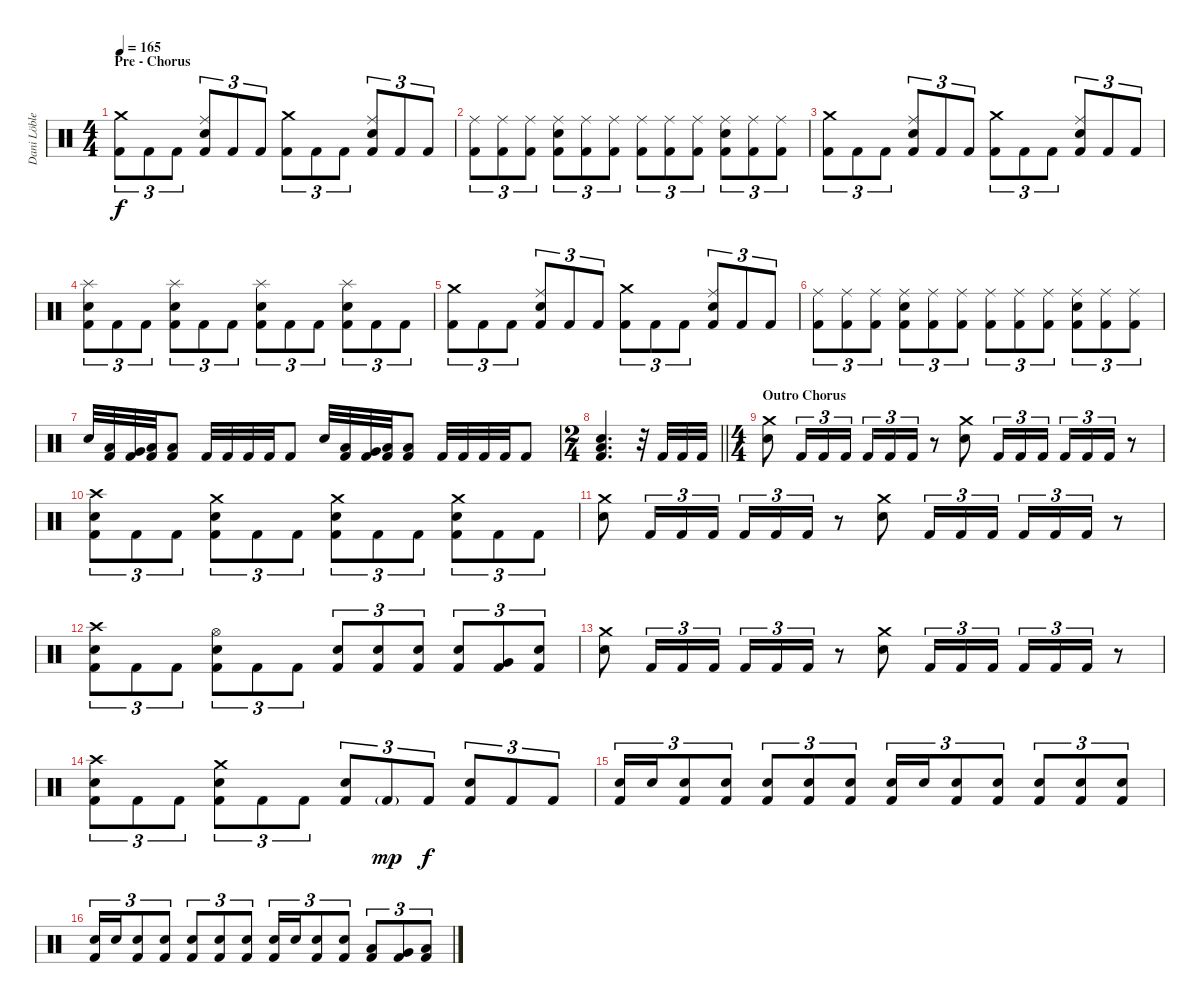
\track ("Dani Löble" "Dani Löble") {instrument percussion}
\staff {score}
\articulation defaults
\ts (4 4)
\section ("" "Pre - Chorus")
\tempo 165
\clef neutral
\ks c
("Crash medium (hit)" "Kick (hit) 2").8{tu (3 2) dy f} "Kick (hit) 2".8{tu (3 2)} "Kick (hit) 2".8{tu (3 2)} ("Ride (middle)" "Electric Snare (hit)" "Kick (hit) 2").8{tu (3 2)} "Kick (hit) 2".8{tu (3 2)} "Kick (hit) 2".8{tu (3 2)} ("Crash medium (hit)" "Kick (hit) 2").8{tu (3 2)} "Kick (hit) 2".8{tu (3 2)} "Kick (hit) 2".8{tu (3 2)} ("Ride (middle)" "Electric Snare (hit)" "Kick (hit) 2").8{tu (3 2)} "Kick (hit) 2".8{tu (3 2)} "Kick (hit) 2".8{tu (3 2)} |
("Ride (middle)" "Kick (hit) 2").8{tu (3 2)} ("Ride (middle)" "Kick (hit) 2").8{tu (3 2)} ("Ride (middle)" "Kick (hit) 2").8{tu (3 2)} ("Ride (middle)" "Electric Snare (hit)" "Kick (hit) 2").8{tu (3 2)} ("Ride (middle)" "Kick (hit) 2").8{tu (3 2)} ("Ride (middle)" "Kick (hit) 2").8{tu (3 2)} ("Ride (middle)" "Kick (hit) 2").8{tu (3 2)} ("Ride (middle)" "Kick (hit) 2").8{tu (3 2)} ("Ride (middle)" "Kick (hit) 2").8{tu (3 2)} ("Ride (middle)" "Electric Snare (hit)" "Kick (hit) 2").8{tu (3 2)} ("Ride (middle)" "Kick (hit) 2").8{tu (3 2)} ("Ride (middle)" "Kick (hit) 2").8{tu (3 2)} |
("Crash medium (hit)" "Kick (hit) 2").8{tu (3 2)} "Kick (hit) 2".8{tu (3 2)} "Kick (hit) 2".8{tu (3 2)} ("Ride (middle)" "Electric Snare (hit)" "Kick (hit) 2").8{tu (3 2)} "Kick (hit) 2".8{tu (3 2)} "Kick (hit) 2".8{tu (3 2)} ("Crash medium (hit)" "Kick (hit) 2").8{tu (3 2)} "Kick (hit) 2".8{tu (3 2)} "Kick (hit) 2".8{tu (3 2)} ("Ride (middle)" "Electric Snare (hit)" "Kick (hit) 2").8{tu (3 2)} "Kick (hit) 2".8{tu (3 2)} "Kick (hit) 2".8{tu (3 2)} |
("Splash (hit)" "Electric Snare (hit)" "Kick (hit) 2").8{tu (3 2)} "Kick (hit) 2".8{tu (3 2)} "Kick (hit) 2".8{tu (3 2)} ("Splash (hit)" "Electric Snare (hit)" "Kick (hit) 2").8{tu (3 2)} "Kick (hit) 2".8{tu (3 2)} "Kick (hit) 2".8{tu (3 2)} ("Splash (hit)" "Electric Snare (hit)" "Kick (hit) 2").8{tu (3 2)} "Kick (hit) 2".8{tu (3 2)} "Kick (hit) 2".8{tu (3 2)} ("Splash (hit)" "Electric Snare (hit)" "Kick (hit) 2").8{tu (3 2)} "Kick (hit) 2".8{tu (3 2)} "Kick (hit) 2".8{tu (3 2)} |
("Crash medium (hit)" "Kick (hit) 2").8{tu (3 2)} "Kick (hit) 2".8{tu (3 2)} "Kick (hit) 2".8{tu (3 2)} ("Ride (middle)" "Electric Snare (hit)" "Kick (hit) 2").8{tu (3 2)} "Kick (hit) 2".8{tu (3 2)} "Kick (hit) 2".8{tu (3 2)} ("Crash medium (hit)" "Kick (hit) 2").8{tu (3 2)} "Kick (hit) 2".8{tu (3 2)} "Kick (hit) 2".8{tu (3 2)} ("Ride (middle)" "Electric Snare (hit)" "Kick (hit) 2").8{tu (3 2)} "Kick (hit) 2".8{tu (3 2)} "Kick (hit) 2".8{tu (3 2)} |
("Ride (middle)" "Kick (hit) 2").8{tu (3 2)} ("Ride (middle)" "Kick (hit) 2").8{tu (3 2)} ("Ride (middle)" "Kick (hit) 2").8{tu (3 2)} ("Ride (middle)" "Electric Snare (hit)" "Kick (hit) 2").8{tu (3 2)} ("Ride (middle)" "Kick (hit) 2").8{tu (3 2)} ("Ride (middle)" "Kick (hit) 2").8{tu (3 2)} ("Ride (middle)" "Kick (hit) 2").8{tu (3 2)} ("Ride (middle)" "Kick (hit) 2").8{tu (3 2)} ("Ride (middle)" "Kick (hit) 2").8{tu (3 2)} ("Ride (middle)" "Electric Snare (hit)" "Kick (hit) 2").8{tu (3 2)} ("Ride (middle)" "Kick (hit) 2").8{tu (3 2)} ("Ride (middle)" "Kick (hit) 2").8{tu (3 2)} |
"Electric Snare (hit)".32 ("Low Tom (hit)" "Kick (hit) 2").32 ("Very Low Tom (hit)" "Kick (hit) 2").32 ("Low Floor Tom (hit)" "Kick (hit) 2").32 ("Low Floor Tom (hit)" "Kick (hit) 2").8 "Kick (hit) 2".32 "Kick (hit) 2".32 "Kick (hit) 2".32 "Kick (hit) 2".32 "Kick (hit) 2".8 "Electric Snare (hit)".32 ("Low Tom (hit)" "Kick (hit) 2").32 ("Very Low Tom (hit)" "Kick (hit) 2").32 ("Low Floor Tom (hit)" "Kick (hit) 2").32 ("Low Floor Tom (hit)" "Kick (hit) 2").8 "Kick (hit) 2".32 "Kick (hit) 2".32 "Kick (hit) 2".32 "Kick (hit) 2".32 "Kick (hit) 2".8 |
\ts (2 4)
\barLineRight lightlight
("Electric Snare (hit)" "Low Floor Tom (hit)" "Kick (hit) 2").4{d} r.32 "Kick (hit) 2".32 "Kick (hit) 2".32 "Kick (hit) 2".32 |
\ts (4 4)
\section ("" "Outro Chorus")
("Crash medium (hit)" "Electric Snare (hit)").8 "Kick (hit) 2".16{tu (3 2)} "Kick (hit) 2".16{tu (3 2)} "Kick (hit) 2".16{tu (3 2)} "Kick (hit) 2".16{tu (3 2)} "Kick (hit) 2".16{tu (3 2)} "Kick (hit) 2".16{tu (3 2)} r.8 ("Crash medium (hit)" "Electric Snare (hit)").8 "Kick (hit) 2".16{tu (3 2)} "Kick (hit) 2".16{tu (3 2)} "Kick (hit) 2".16{tu (3 2)} "Kick (hit) 2".16{tu (3 2)} "Kick (hit) 2".16{tu (3 2)} "Kick (hit) 2".16{tu (3 2)} r.8 |
("Crash high (hit)" "Electric Snare (hit)" "Kick (hit) 2").8{tu (3 2)} "Kick (hit) 2".8{tu (3 2)} "Kick (hit) 2".8{tu (3 2)} ("Crash medium (hit)" "Electric Snare (hit)" "Kick (hit) 2").8{tu (3 2)} "Kick (hit) 2".8{tu (3 2)} "Kick (hit) 2".8{tu (3 2)} ("Crash medium (hit)" "Electric Snare (hit)" "Kick (hit) 2").8{tu (3 2)} "Kick (hit) 2".8{tu (3 2)} "Kick (hit) 2".8{tu (3 2)} ("Crash medium (hit)" "Electric Snare (hit)" "Kick (hit) 2").8{tu (3 2)} "Kick (hit) 2".8{tu (3 2)} "Kick (hit) 2".8{tu (3 2)} |
("Crash medium (hit)" "Electric Snare (hit)").8 "Kick (hit) 2".16{tu (3 2)} "Kick (hit) 2".16{tu (3 2)} "Kick (hit) 2".16{tu (3 2)} "Kick (hit) 2".16{tu (3 2)} "Kick (hit) 2".16{tu (3 2)} "Kick (hit) 2".16{tu (3 2)} r.8 ("Crash medium (hit)" "Electric Snare (hit)").8 "Kick (hit) 2".16{tu (3 2)} "Kick (hit) 2".16{tu (3 2)} "Kick (hit) 2".16{tu (3 2)} "Kick (hit) 2".16{tu (3 2)} "Kick (hit) 2".16{tu (3 2)} "Kick (hit) 2".16{tu (3 2)} r.8 |
("Crash high (hit)" "Electric Snare (hit)" "Kick (hit) 2").8{tu (3 2)} "Kick (hit) 2".8{tu (3 2)} "Kick (hit) 2".8{tu (3 2)} ("Hi-Hat (open)" "Electric Snare (hit)" "Kick (hit) 2").8{tu (3 2)} "Kick (hit) 2".8{tu (3 2)} "Kick (hit) 2".8{tu (3 2)} ("Electric Snare (hit)" "Kick (hit) 2").8{tu (3 2)} ("Electric Snare (hit)" "Kick (hit) 2").8{tu (3 2)} ("Electric Snare (hit)" "Kick (hit) 2").8{tu (3 2)} ("Electric Snare (hit)" "Kick (hit) 2").8{tu (3 2)} ("Very Low Tom (hit)" "Kick (hit) 2").8{tu (3 2)} ("Electric Snare (hit)" "Kick (hit) 2").8{tu (3 2)} |
("Crash medium (hit)" "Electric Snare (hit)").8 "Kick (hit) 2".16{tu (3 2)} "Kick (hit) 2".16{tu (3 2)} "Kick (hit) 2".16{tu (3 2)} "Kick (hit) 2".16{tu (3 2)} "Kick (hit) 2".16{tu (3 2)} "Kick (hit) 2".16{tu (3 2)} r.8 ("Crash medium (hit)" "Electric Snare (hit)").8 "Kick (hit) 2".16{tu (3 2)} "Kick (hit) 2".16{tu (3 2)} "Kick (hit) 2".16{tu (3 2)} "Kick (hit) 2".16{tu (3 2)} "Kick (hit) 2".16{tu (3 2)} "Kick (hit) 2".16{tu (3 2)} r.8 |
("Crash high (hit)" "Electric Snare (hit)" "Kick (hit) 2").8{tu (3 2)} "Kick (hit) 2".8{tu (3 2)} "Kick (hit) 2".8{tu (3 2)} ("Crash medium (hit)" "Electric Snare (hit)" "Kick (hit) 2").8{tu (3 2)} "Kick (hit) 2".8{tu (3 2)} "Kick (hit) 2".8{tu (3 2)} ("Electric Snare (hit)" "Kick (hit) 2").8{tu (3 2)} "Kick (hit) 2"{g}.8{tu (3 2) dy mp} "Kick (hit) 2".8{tu (3 2) dy f} ("Electric Snare (hit)" "Kick (hit) 2").8{tu (3 2)} "Kick (hit) 2".8{tu (3 2)} "Kick (hit) 2".8{tu (3 2)} |
("Electric Snare (hit)" "Kick (hit) 2").16{tu (3 2)} "Electric Snare (hit)".16{tu (3 2)} ("Electric Snare (hit)" "Kick (hit) 2").8{tu (3 2)} ("Electric Snare (hit)" "Kick (hit) 2").8{tu (3 2)} ("Electric Snare (hit)" "Kick (hit) 2").8{tu (3 2)} ("Electric Snare (hit)" "Kick (hit) 2").8{tu (3 2)} ("Electric Snare (hit)" "Kick (hit) 2").8{tu (3 2)} ("Electric Snare (hit)" "Kick (hit) 2").16{tu (3 2)} "Electric Snare (hit)".16{tu (3 2)} ("Electric Snare (hit)" "Kick (hit) 2").8{tu (3 2)} ("Electric Snare (hit)" "Kick (hit) 2").8{tu (3 2)} ("Electric Snare (hit)" "Kick (hit) 2").8{tu (3 2)} ("Electric Snare (hit)" "Kick (hit) 2").8{tu (3 2)} ("Electric Snare (hit)" "Kick (hit) 2").8{tu (3 2)} |
("Electric Snare (hit)" "Kick (hit) 2").16{tu (3 2)} "Electric Snare (hit)".16{tu (3 2)} ("Electric Snare (hit)" "Kick (hit) 2").8{tu (3 2)} ("Electric Snare (hit)" "Kick (hit) 2").8{tu (3 2)} ("Electric Snare (hit)" "Kick (hit) 2").8{tu (3 2)} ("Electric Snare (hit)" "Kick (hit) 2").8{tu (3 2)} ("Electric Snare (hit)" "Kick (hit) 2").8{tu (3 2)} ("Electric Snare (hit)" "Kick (hit) 2").16{tu (3 2)} "Electric Snare (hit)".16{tu (3 2)} ("Electric Snare (hit)" "Kick (hit) 2").8{tu (3 2)} ("Electric Snare (hit)" "Kick (hit) 2").8{tu (3 2)} ("Low Tom (hit)" "Kick (hit) 2").8{tu (3 2)} ("Very Low Tom (hit)" "Kick (hit) 2").8{tu (3 2)} ("Low Floor Tom (hit)" "Kick (hit) 2").8{tu (3 2)}
